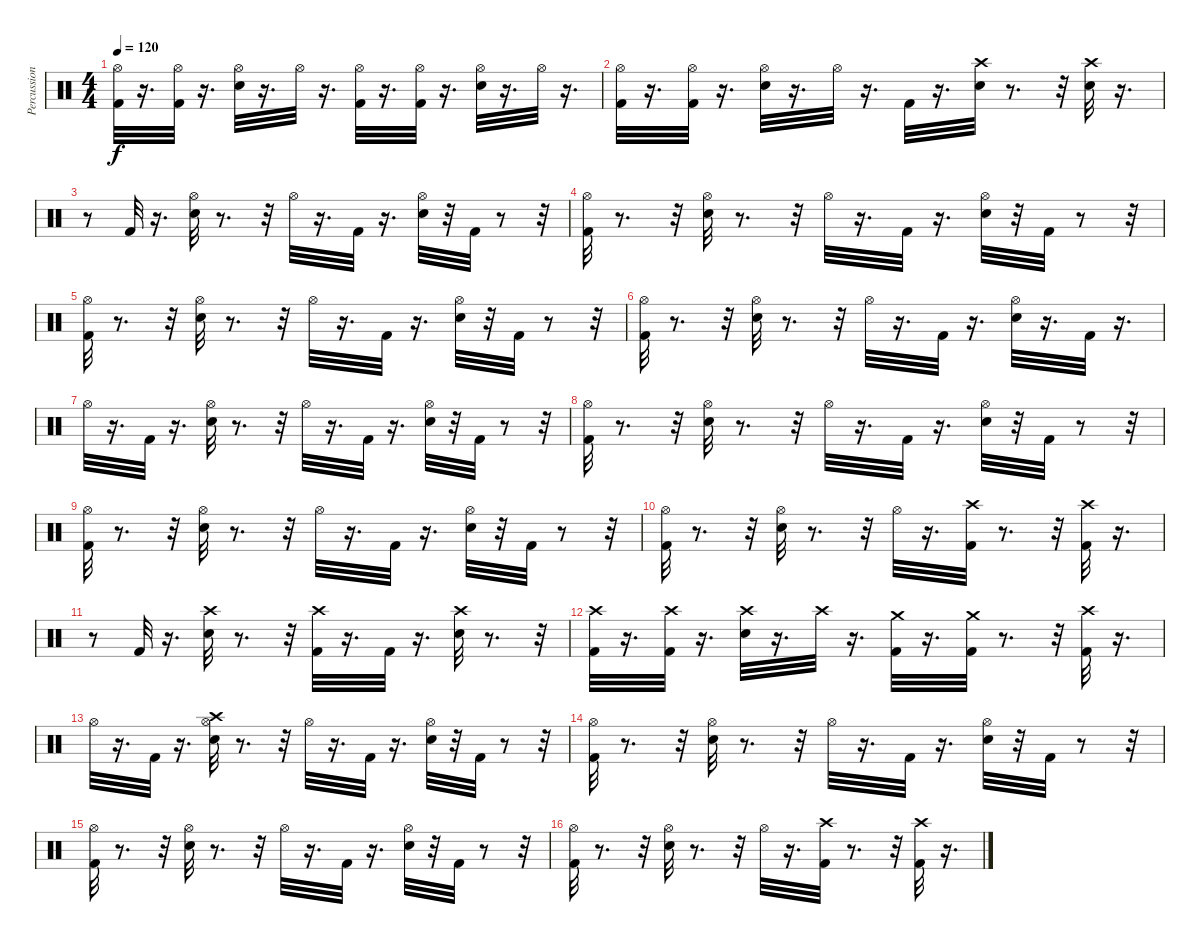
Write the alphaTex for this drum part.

\track ("Percussion" "Percussion") {instrument percussion}
\staff {score}
\articulation defaults
\ts (4 4)
\tempo 120
\clef neutral
\ks c
("Kick (hit) 2" "Hi-Hat (open)").32{dy f} r.16{d} ("Kick (hit) 2" "Hi-Hat (open)").32 r.16{d} ("Electric Snare (hit)" "Hi-Hat (open)").32 r.16{d} "Hi-Hat (open)".32 r.16{d} ("Kick (hit) 2" "Hi-Hat (open)").32 r.16{d} ("Kick (hit) 2" "Hi-Hat (open)").32 r.16{d} ("Electric Snare (hit)" "Hi-Hat (open)").32 r.16{d} "Hi-Hat (open)".32 r.16{d} |
("Kick (hit) 2" "Hi-Hat (open)").32 r.16{d} ("Kick (hit) 2" "Hi-Hat (open)").32 r.16{d} ("Electric Snare (hit)" "Hi-Hat (open)").32 r.16{d} "Hi-Hat (open)".32 r.16{d} "Kick (hit) 2".32 r.16{d} ("Crash high (hit)" "Electric Snare (hit)").32 r.8{d} r.32 ("Crash high (hit)" "Electric Snare (hit)").32 r.16{d} |
r.8 "Kick (hit) 2".32 r.16{d} ("Hi-Hat (open)" "Electric Snare (hit)").32 r.8{d} r.32 "Hi-Hat (open)".32 r.16{d} "Kick (hit) 2".32 r.16{d} ("Electric Snare (hit)" "Hi-Hat (open)").32 r.32 "Kick (hit) 2".32 r.8 r.32 |
("Kick (hit) 2" "Hi-Hat (open)").32 r.8{d} r.32 ("Electric Snare (hit)" "Hi-Hat (open)").32 r.8{d} r.32 "Hi-Hat (open)".32 r.16{d} "Kick (hit) 2".32 r.16{d} ("Electric Snare (hit)" "Hi-Hat (open)").32 r.32 "Kick (hit) 2".32 r.8 r.32 |
("Kick (hit) 2" "Hi-Hat (open)").32 r.8{d} r.32 ("Electric Snare (hit)" "Hi-Hat (open)").32 r.8{d} r.32 "Hi-Hat (open)".32 r.16{d} "Kick (hit) 2".32 r.16{d} ("Electric Snare (hit)" "Hi-Hat (open)").32 r.32 "Kick (hit) 2".32 r.8 r.32 |
("Kick (hit) 2" "Hi-Hat (open)").32 r.8{d} r.32 ("Electric Snare (hit)" "Hi-Hat (open)").32 r.8{d} r.32 "Hi-Hat (open)".32 r.16{d} "Kick (hit) 2".32 r.16{d} ("Electric Snare (hit)" "Hi-Hat (open)").32 r.16{d} "Kick (hit) 2".32 r.16{d} |
"Hi-Hat (open)".32 r.16{d} "Kick (hit) 2".32 r.16{d} ("Hi-Hat (open)" "Electric Snare (hit)").32 r.8{d} r.32 "Hi-Hat (open)".32 r.16{d} "Kick (hit) 2".32 r.16{d} ("Electric Snare (hit)" "Hi-Hat (open)").32 r.32 "Kick (hit) 2".32 r.8 r.32 |
("Kick (hit) 2" "Hi-Hat (open)").32 r.8{d} r.32 ("Electric Snare (hit)" "Hi-Hat (open)").32 r.8{d} r.32 "Hi-Hat (open)".32 r.16{d} "Kick (hit) 2".32 r.16{d} ("Electric Snare (hit)" "Hi-Hat (open)").32 r.32 "Kick (hit) 2".32 r.8 r.32 |
("Kick (hit) 2" "Hi-Hat (open)").32 r.8{d} r.32 ("Electric Snare (hit)" "Hi-Hat (open)").32 r.8{d} r.32 "Hi-Hat (open)".32 r.16{d} "Kick (hit) 2".32 r.16{d} ("Electric Snare (hit)" "Hi-Hat (open)").32 r.32 "Kick (hit) 2".32 r.8 r.32 |
("Kick (hit) 2" "Hi-Hat (open)").32 r.8{d} r.32 ("Electric Snare (hit)" "Hi-Hat (open)").32 r.8{d} r.32 "Hi-Hat (open)".32 r.16{d} ("Crash high (hit)" "Kick (hit) 2").32 r.8{d} r.32 ("Crash high (hit)" "Kick (hit) 2").32 r.16{d} |
r.8 "Kick (hit) 2".32 r.16{d} ("Electric Snare (hit)" "Crash high (hit)").32 r.8{d} r.32 ("Kick (hit) 2" "Crash high (hit)").32 r.16{d} "Kick (hit) 2".32 r.16{d} ("Electric Snare (hit)" "Crash high (hit)").32 r.8{d} r.32 |
("Kick (hit) 2" "Crash high (hit)").32 r.16{d} ("Crash high (hit)" "Kick (hit) 2").32 r.16{d} ("Electric Snare (hit)" "Crash high (hit)").32 r.16{d} "Crash high (hit)".32 r.16{d} ("Crash medium (hit)" "Kick (hit) 2").32 r.16{d} ("Crash medium (hit)" "Kick (hit) 2").32 r.8{d} r.32 ("Kick (hit) 2" "Crash high (hit)").32 r.16{d} |
"Hi-Hat (open)".32 r.16{d} "Kick (hit) 2".32 r.16{d} ("Hi-Hat (open)" "Electric Snare (hit)" "Crash high (hit)").32 r.8{d} r.32 "Hi-Hat (open)".32 r.16{d} "Kick (hit) 2".32 r.16{d} ("Electric Snare (hit)" "Hi-Hat (open)").32 r.32 "Kick (hit) 2".32 r.8 r.32 |
("Kick (hit) 2" "Hi-Hat (open)").32 r.8{d} r.32 ("Electric Snare (hit)" "Hi-Hat (open)").32 r.8{d} r.32 "Hi-Hat (open)".32 r.16{d} "Kick (hit) 2".32 r.16{d} ("Electric Snare (hit)" "Hi-Hat (open)").32 r.32 "Kick (hit) 2".32 r.8 r.32 |
("Kick (hit) 2" "Hi-Hat (open)").32 r.8{d} r.32 ("Electric Snare (hit)" "Hi-Hat (open)").32 r.8{d} r.32 "Hi-Hat (open)".32 r.16{d} "Kick (hit) 2".32 r.16{d} ("Electric Snare (hit)" "Hi-Hat (open)").32 r.32 "Kick (hit) 2".32 r.8 r.32 |
("Kick (hit) 2" "Hi-Hat (open)").32 r.8{d} r.32 ("Electric Snare (hit)" "Hi-Hat (open)").32 r.8{d} r.32 "Hi-Hat (open)".32 r.16{d} ("Crash high (hit)" "Kick (hit) 2").32 r.8{d} r.32 ("Crash high (hit)" "Kick (hit) 2").32 r.16{d}
